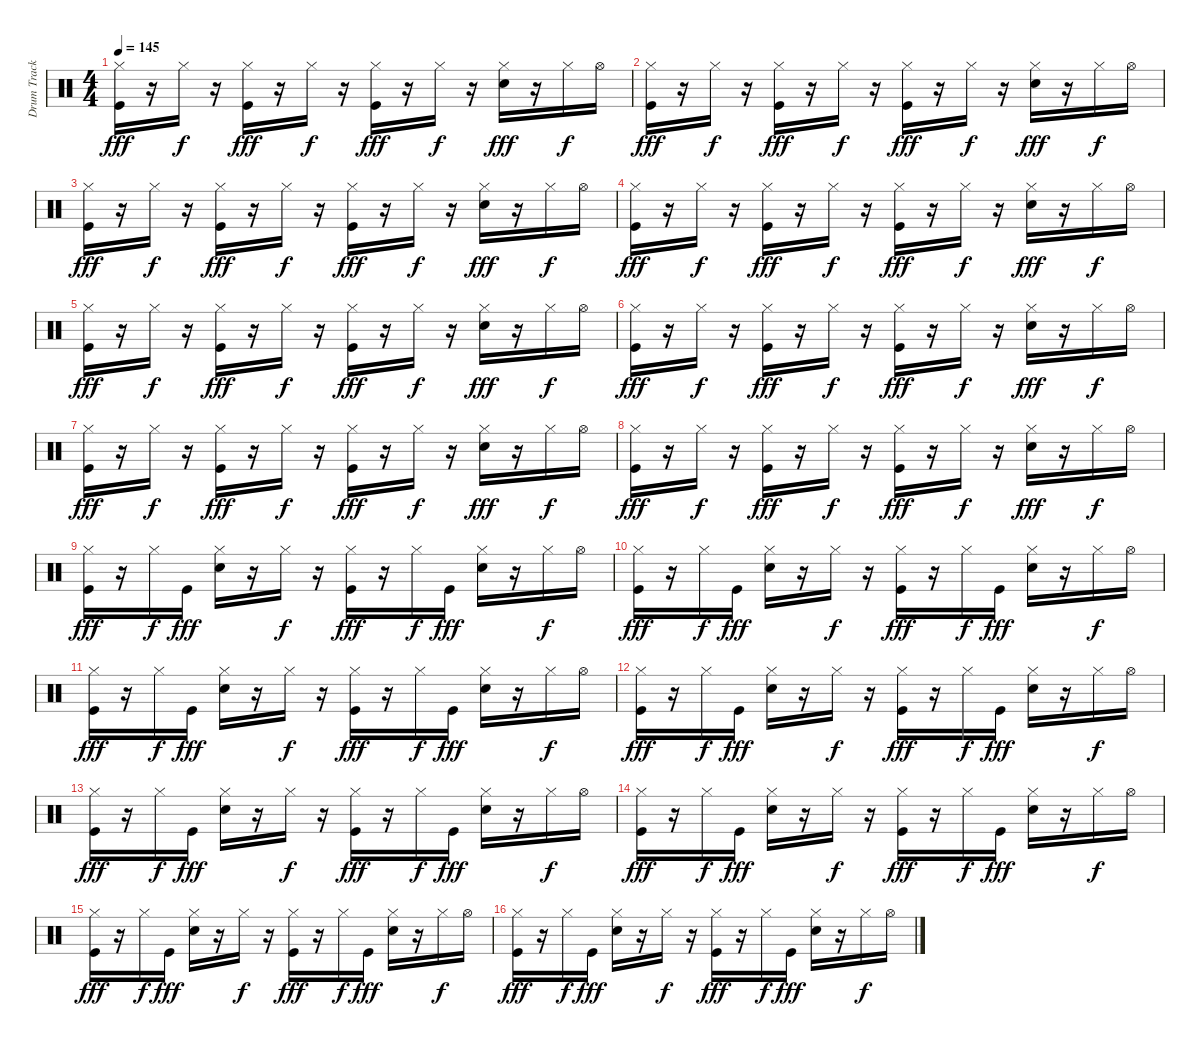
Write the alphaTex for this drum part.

\track ("Drum Track" "Drum Track") {instrument percussion}
\staff {score}
\articulation defaults
\ts (4 4)
\tempo 145
\clef neutral
\ks c
("Kick (hit)" "Hi-Hat (closed)").16{dy fff} r.16 "Hi-Hat (closed)".16{dy f} r.16 ("Kick (hit)" "Hi-Hat (closed)").16{dy fff} r.16 "Hi-Hat (closed)".16{dy f} r.16 ("Kick (hit)" "Hi-Hat (closed)").16{dy fff} r.16 "Hi-Hat (closed)".16{dy f} r.16 ("Snare (hit) 2" "Hi-Hat (closed)").16{dy fff} r.16 "Hi-Hat (closed)".16{dy f} "Hi-Hat (open)".16 |
("Kick (hit)" "Hi-Hat (closed)").16{dy fff} r.16 "Hi-Hat (closed)".16{dy f} r.16 ("Kick (hit)" "Hi-Hat (closed)").16{dy fff} r.16 "Hi-Hat (closed)".16{dy f} r.16 ("Kick (hit)" "Hi-Hat (closed)").16{dy fff} r.16 "Hi-Hat (closed)".16{dy f} r.16 ("Snare (hit) 2" "Hi-Hat (closed)").16{dy fff} r.16 "Hi-Hat (closed)".16{dy f} "Hi-Hat (open)".16 |
("Kick (hit)" "Hi-Hat (closed)").16{dy fff} r.16 "Hi-Hat (closed)".16{dy f} r.16 ("Kick (hit)" "Hi-Hat (closed)").16{dy fff} r.16 "Hi-Hat (closed)".16{dy f} r.16 ("Kick (hit)" "Hi-Hat (closed)").16{dy fff} r.16 "Hi-Hat (closed)".16{dy f} r.16 ("Snare (hit) 2" "Hi-Hat (closed)").16{dy fff} r.16 "Hi-Hat (closed)".16{dy f} "Hi-Hat (open)".16 |
("Kick (hit)" "Hi-Hat (closed)").16{dy fff} r.16 "Hi-Hat (closed)".16{dy f} r.16 ("Kick (hit)" "Hi-Hat (closed)").16{dy fff} r.16 "Hi-Hat (closed)".16{dy f} r.16 ("Kick (hit)" "Hi-Hat (closed)").16{dy fff} r.16 "Hi-Hat (closed)".16{dy f} r.16 ("Snare (hit) 2" "Hi-Hat (closed)").16{dy fff} r.16 "Hi-Hat (closed)".16{dy f} "Hi-Hat (open)".16 |
("Kick (hit)" "Hi-Hat (closed)").16{dy fff} r.16 "Hi-Hat (closed)".16{dy f} r.16 ("Kick (hit)" "Hi-Hat (closed)").16{dy fff} r.16 "Hi-Hat (closed)".16{dy f} r.16 ("Kick (hit)" "Hi-Hat (closed)").16{dy fff} r.16 "Hi-Hat (closed)".16{dy f} r.16 ("Snare (hit) 2" "Hi-Hat (closed)").16{dy fff} r.16 "Hi-Hat (closed)".16{dy f} "Hi-Hat (open)".16 |
("Kick (hit)" "Hi-Hat (closed)").16{dy fff} r.16 "Hi-Hat (closed)".16{dy f} r.16 ("Kick (hit)" "Hi-Hat (closed)").16{dy fff} r.16 "Hi-Hat (closed)".16{dy f} r.16 ("Kick (hit)" "Hi-Hat (closed)").16{dy fff} r.16 "Hi-Hat (closed)".16{dy f} r.16 ("Snare (hit) 2" "Hi-Hat (closed)").16{dy fff} r.16 "Hi-Hat (closed)".16{dy f} "Hi-Hat (open)".16 |
("Kick (hit)" "Hi-Hat (closed)").16{dy fff} r.16 "Hi-Hat (closed)".16{dy f} r.16 ("Kick (hit)" "Hi-Hat (closed)").16{dy fff} r.16 "Hi-Hat (closed)".16{dy f} r.16 ("Kick (hit)" "Hi-Hat (closed)").16{dy fff} r.16 "Hi-Hat (closed)".16{dy f} r.16 ("Snare (hit) 2" "Hi-Hat (closed)").16{dy fff} r.16 "Hi-Hat (closed)".16{dy f} "Hi-Hat (open)".16 |
("Kick (hit)" "Hi-Hat (closed)").16{dy fff} r.16 "Hi-Hat (closed)".16{dy f} r.16 ("Kick (hit)" "Hi-Hat (closed)").16{dy fff} r.16 "Hi-Hat (closed)".16{dy f} r.16 ("Kick (hit)" "Hi-Hat (closed)").16{dy fff} r.16 "Hi-Hat (closed)".16{dy f} r.16 ("Snare (hit) 2" "Hi-Hat (closed)").16{dy fff} r.16 "Hi-Hat (closed)".16{dy f} "Hi-Hat (open)".16 |
("Kick (hit)" "Hi-Hat (closed)").16{dy fff} r.16 "Hi-Hat (closed)".16{dy f} "Kick (hit)".16{dy fff} ("Hi-Hat (closed)" "Snare (hit) 2").16 r.16 "Hi-Hat (closed)".16{dy f} r.16 ("Kick (hit)" "Hi-Hat (closed)").16{dy fff} r.16 "Hi-Hat (closed)".16{dy f} "Kick (hit)".16{dy fff} ("Hi-Hat (closed)" "Snare (hit) 2").16 r.16 "Hi-Hat (closed)".16{dy f} "Hi-Hat (open)".16 |
("Kick (hit)" "Hi-Hat (closed)").16{dy fff} r.16 "Hi-Hat (closed)".16{dy f} "Kick (hit)".16{dy fff} ("Hi-Hat (closed)" "Snare (hit) 2").16 r.16 "Hi-Hat (closed)".16{dy f} r.16 ("Kick (hit)" "Hi-Hat (closed)").16{dy fff} r.16 "Hi-Hat (closed)".16{dy f} "Kick (hit)".16{dy fff} ("Hi-Hat (closed)" "Snare (hit) 2").16 r.16 "Hi-Hat (closed)".16{dy f} "Hi-Hat (open)".16 |
("Kick (hit)" "Hi-Hat (closed)").16{dy fff} r.16 "Hi-Hat (closed)".16{dy f} "Kick (hit)".16{dy fff} ("Hi-Hat (closed)" "Snare (hit) 2").16 r.16 "Hi-Hat (closed)".16{dy f} r.16 ("Kick (hit)" "Hi-Hat (closed)").16{dy fff} r.16 "Hi-Hat (closed)".16{dy f} "Kick (hit)".16{dy fff} ("Hi-Hat (closed)" "Snare (hit) 2").16 r.16 "Hi-Hat (closed)".16{dy f} "Hi-Hat (open)".16 |
("Kick (hit)" "Hi-Hat (closed)").16{dy fff} r.16 "Hi-Hat (closed)".16{dy f} "Kick (hit)".16{dy fff} ("Hi-Hat (closed)" "Snare (hit) 2").16 r.16 "Hi-Hat (closed)".16{dy f} r.16 ("Kick (hit)" "Hi-Hat (closed)").16{dy fff} r.16 "Hi-Hat (closed)".16{dy f} "Kick (hit)".16{dy fff} ("Hi-Hat (closed)" "Snare (hit) 2").16 r.16 "Hi-Hat (closed)".16{dy f} "Hi-Hat (open)".16 |
("Kick (hit)" "Hi-Hat (closed)").16{dy fff} r.16 "Hi-Hat (closed)".16{dy f} "Kick (hit)".16{dy fff} ("Hi-Hat (closed)" "Snare (hit) 2").16 r.16 "Hi-Hat (closed)".16{dy f} r.16 ("Kick (hit)" "Hi-Hat (closed)").16{dy fff} r.16 "Hi-Hat (closed)".16{dy f} "Kick (hit)".16{dy fff} ("Hi-Hat (closed)" "Snare (hit) 2").16 r.16 "Hi-Hat (closed)".16{dy f} "Hi-Hat (open)".16 |
("Kick (hit)" "Hi-Hat (closed)").16{dy fff} r.16 "Hi-Hat (closed)".16{dy f} "Kick (hit)".16{dy fff} ("Hi-Hat (closed)" "Snare (hit) 2").16 r.16 "Hi-Hat (closed)".16{dy f} r.16 ("Kick (hit)" "Hi-Hat (closed)").16{dy fff} r.16 "Hi-Hat (closed)".16{dy f} "Kick (hit)".16{dy fff} ("Hi-Hat (closed)" "Snare (hit) 2").16 r.16 "Hi-Hat (closed)".16{dy f} "Hi-Hat (open)".16 |
("Kick (hit)" "Hi-Hat (closed)").16{dy fff} r.16 "Hi-Hat (closed)".16{dy f} "Kick (hit)".16{dy fff} ("Hi-Hat (closed)" "Snare (hit) 2").16 r.16 "Hi-Hat (closed)".16{dy f} r.16 ("Kick (hit)" "Hi-Hat (closed)").16{dy fff} r.16 "Hi-Hat (closed)".16{dy f} "Kick (hit)".16{dy fff} ("Hi-Hat (closed)" "Snare (hit) 2").16 r.16 "Hi-Hat (closed)".16{dy f} "Hi-Hat (open)".16 |
("Kick (hit)" "Hi-Hat (closed)").16{dy fff} r.16 "Hi-Hat (closed)".16{dy f} "Kick (hit)".16{dy fff} ("Hi-Hat (closed)" "Snare (hit) 2").16 r.16 "Hi-Hat (closed)".16{dy f} r.16 ("Kick (hit)" "Hi-Hat (closed)").16{dy fff} r.16 "Hi-Hat (closed)".16{dy f} "Kick (hit)".16{dy fff} ("Hi-Hat (closed)" "Snare (hit) 2").16 r.16 "Hi-Hat (closed)".16{dy f} "Hi-Hat (open)".16
